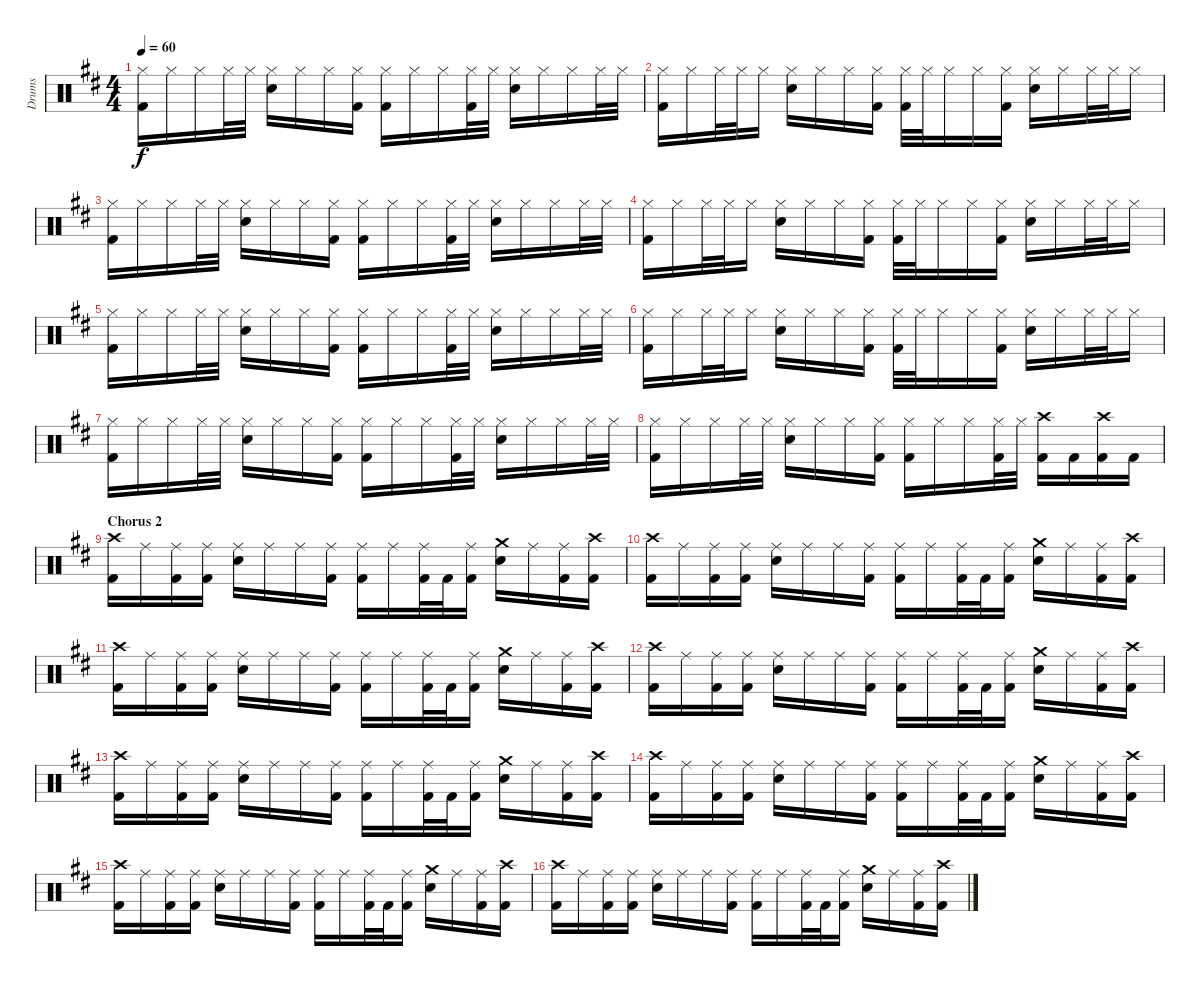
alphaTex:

\track ("Drums" "Drums") {instrument percussion}
\staff {score}
\articulation defaults
\ts (4 4)
\tempo 60
\clef neutral
\ks bminor
("Hi-Hat (closed)" "Kick (hit) 2").16{dy f} "Hi-Hat (closed)".16 "Hi-Hat (closed)".16 "Hi-Hat (closed)".32 "Hi-Hat (closed)".32 ("Hi-Hat (closed)" "Snare (hit) 2").16 "Hi-Hat (closed)".16 "Hi-Hat (closed)".16 ("Hi-Hat (closed)" "Kick (hit) 2").16 ("Hi-Hat (closed)" "Kick (hit) 2").16 "Hi-Hat (closed)".16 "Hi-Hat (closed)".16 ("Hi-Hat (closed)" "Kick (hit) 2").32 "Hi-Hat (closed)".32 ("Hi-Hat (closed)" "Snare (hit) 2").16 "Hi-Hat (closed)".16 "Hi-Hat (closed)".16 "Hi-Hat (closed)".32 "Hi-Hat (closed)".32 |
("Hi-Hat (closed)" "Kick (hit) 2").16 "Hi-Hat (closed)".16 "Hi-Hat (closed)".32 "Hi-Hat (closed)".32 "Hi-Hat (closed)".16 ("Hi-Hat (closed)" "Snare (hit) 2").16 "Hi-Hat (closed)".16 "Hi-Hat (closed)".16 ("Hi-Hat (closed)" "Kick (hit) 2").16 ("Hi-Hat (closed)" "Kick (hit) 2").32 "Hi-Hat (closed)".32 "Hi-Hat (closed)".16 "Hi-Hat (closed)".16 ("Hi-Hat (closed)" "Kick (hit) 2").16 ("Hi-Hat (closed)" "Snare (hit) 2").16 "Hi-Hat (closed)".16 "Hi-Hat (closed)".32 "Hi-Hat (closed)".32 "Hi-Hat (closed)".16 |
("Hi-Hat (closed)" "Kick (hit) 2").16 "Hi-Hat (closed)".16 "Hi-Hat (closed)".16 "Hi-Hat (closed)".32 "Hi-Hat (closed)".32 ("Hi-Hat (closed)" "Snare (hit) 2").16 "Hi-Hat (closed)".16 "Hi-Hat (closed)".16 ("Hi-Hat (closed)" "Kick (hit) 2").16 ("Hi-Hat (closed)" "Kick (hit) 2").16 "Hi-Hat (closed)".16 "Hi-Hat (closed)".16 ("Hi-Hat (closed)" "Kick (hit) 2").32 "Hi-Hat (closed)".32 ("Hi-Hat (closed)" "Snare (hit) 2").16 "Hi-Hat (closed)".16 "Hi-Hat (closed)".16 "Hi-Hat (closed)".32 "Hi-Hat (closed)".32 |
("Hi-Hat (closed)" "Kick (hit) 2").16 "Hi-Hat (closed)".16 "Hi-Hat (closed)".32 "Hi-Hat (closed)".32 "Hi-Hat (closed)".16 ("Hi-Hat (closed)" "Snare (hit) 2").16 "Hi-Hat (closed)".16 "Hi-Hat (closed)".16 ("Hi-Hat (closed)" "Kick (hit) 2").16 ("Hi-Hat (closed)" "Kick (hit) 2").32 "Hi-Hat (closed)".32 "Hi-Hat (closed)".16 "Hi-Hat (closed)".16 ("Hi-Hat (closed)" "Kick (hit) 2").16 ("Hi-Hat (closed)" "Snare (hit) 2").16 "Hi-Hat (closed)".16 "Hi-Hat (closed)".32 "Hi-Hat (closed)".32 "Hi-Hat (closed)".16 |
("Hi-Hat (closed)" "Kick (hit) 2").16 "Hi-Hat (closed)".16 "Hi-Hat (closed)".16 "Hi-Hat (closed)".32 "Hi-Hat (closed)".32 ("Hi-Hat (closed)" "Snare (hit) 2").16 "Hi-Hat (closed)".16 "Hi-Hat (closed)".16 ("Hi-Hat (closed)" "Kick (hit) 2").16 ("Hi-Hat (closed)" "Kick (hit) 2").16 "Hi-Hat (closed)".16 "Hi-Hat (closed)".16 ("Hi-Hat (closed)" "Kick (hit) 2").32 "Hi-Hat (closed)".32 ("Hi-Hat (closed)" "Snare (hit) 2").16 "Hi-Hat (closed)".16 "Hi-Hat (closed)".16 "Hi-Hat (closed)".32 "Hi-Hat (closed)".32 |
("Hi-Hat (closed)" "Kick (hit) 2").16 "Hi-Hat (closed)".16 "Hi-Hat (closed)".32 "Hi-Hat (closed)".32 "Hi-Hat (closed)".16 ("Hi-Hat (closed)" "Snare (hit) 2").16 "Hi-Hat (closed)".16 "Hi-Hat (closed)".16 ("Hi-Hat (closed)" "Kick (hit) 2").16 ("Hi-Hat (closed)" "Kick (hit) 2").32 "Hi-Hat (closed)".32 "Hi-Hat (closed)".16 "Hi-Hat (closed)".16 ("Hi-Hat (closed)" "Kick (hit) 2").16 ("Hi-Hat (closed)" "Snare (hit) 2").16 "Hi-Hat (closed)".16 "Hi-Hat (closed)".32 "Hi-Hat (closed)".32 "Hi-Hat (closed)".16 |
("Hi-Hat (closed)" "Kick (hit) 2").16 "Hi-Hat (closed)".16 "Hi-Hat (closed)".16 "Hi-Hat (closed)".32 "Hi-Hat (closed)".32 ("Hi-Hat (closed)" "Snare (hit) 2").16 "Hi-Hat (closed)".16 "Hi-Hat (closed)".16 ("Hi-Hat (closed)" "Kick (hit) 2").16 ("Hi-Hat (closed)" "Kick (hit) 2").16 "Hi-Hat (closed)".16 "Hi-Hat (closed)".16 ("Hi-Hat (closed)" "Kick (hit) 2").32 "Hi-Hat (closed)".32 ("Hi-Hat (closed)" "Snare (hit) 2").16 "Hi-Hat (closed)".16 "Hi-Hat (closed)".16 "Hi-Hat (closed)".32 "Hi-Hat (closed)".32 |
("Hi-Hat (closed)" "Kick (hit) 2").16 "Hi-Hat (closed)".16 "Hi-Hat (closed)".16 "Hi-Hat (closed)".32 "Hi-Hat (closed)".32 ("Hi-Hat (closed)" "Snare (hit) 2").16 "Hi-Hat (closed)".16 "Hi-Hat (closed)".16 ("Hi-Hat (closed)" "Kick (hit) 2").16 ("Hi-Hat (closed)" "Kick (hit) 2").16 "Hi-Hat (closed)".16 "Hi-Hat (closed)".16 ("Hi-Hat (closed)" "Kick (hit) 2").32 "Hi-Hat (closed)".32 ("Crash high (hit)" "Kick (hit) 2").16 "Kick (hit) 2".16 ("Crash high (hit)" "Kick (hit) 2").16 "Kick (hit) 2".16 |
\section ("" "Chorus 2")
("Crash high (hit)" "Kick (hit) 2").16 "Ride (middle)".16 ("Ride (middle)" "Kick (hit) 2").16 ("Ride (middle)" "Kick (hit) 2").16 ("Ride (middle)" "Snare (hit) 2").16 "Ride (middle)".16 "Ride (middle)".16 ("Ride (middle)" "Kick (hit) 2").16 ("Ride (middle)" "Kick (hit) 2").16 "Ride (middle)".16 ("Ride (middle)" "Kick (hit) 2").32 "Kick (hit) 2".32 ("Ride (middle)" "Kick (hit) 2").16 ("Crash medium (hit)" "Snare (hit) 2").16 "Ride (middle)".16 ("Ride (middle)" "Kick (hit) 2").16 ("Crash high (hit)" "Kick (hit) 2").16 |
("Crash high (hit)" "Kick (hit) 2").16 "Ride (middle)".16 ("Ride (middle)" "Kick (hit) 2").16 ("Ride (middle)" "Kick (hit) 2").16 ("Ride (middle)" "Snare (hit) 2").16 "Ride (middle)".16 "Ride (middle)".16 ("Ride (middle)" "Kick (hit) 2").16 ("Ride (middle)" "Kick (hit) 2").16 "Ride (middle)".16 ("Ride (middle)" "Kick (hit) 2").32 "Kick (hit) 2".32 ("Ride (middle)" "Kick (hit) 2").16 ("Crash medium (hit)" "Snare (hit) 2").16 "Ride (middle)".16 ("Ride (middle)" "Kick (hit) 2").16 ("Crash high (hit)" "Kick (hit) 2").16 |
("Crash high (hit)" "Kick (hit) 2").16 "Ride (middle)".16 ("Ride (middle)" "Kick (hit) 2").16 ("Ride (middle)" "Kick (hit) 2").16 ("Ride (middle)" "Snare (hit) 2").16 "Ride (middle)".16 "Ride (middle)".16 ("Ride (middle)" "Kick (hit) 2").16 ("Ride (middle)" "Kick (hit) 2").16 "Ride (middle)".16 ("Ride (middle)" "Kick (hit) 2").32 "Kick (hit) 2".32 ("Ride (middle)" "Kick (hit) 2").16 ("Crash medium (hit)" "Snare (hit) 2").16 "Ride (middle)".16 ("Ride (middle)" "Kick (hit) 2").16 ("Crash high (hit)" "Kick (hit) 2").16 |
("Crash high (hit)" "Kick (hit) 2").16 "Ride (middle)".16 ("Ride (middle)" "Kick (hit) 2").16 ("Ride (middle)" "Kick (hit) 2").16 ("Ride (middle)" "Snare (hit) 2").16 "Ride (middle)".16 "Ride (middle)".16 ("Ride (middle)" "Kick (hit) 2").16 ("Ride (middle)" "Kick (hit) 2").16 "Ride (middle)".16 ("Ride (middle)" "Kick (hit) 2").32 "Kick (hit) 2".32 ("Ride (middle)" "Kick (hit) 2").16 ("Crash medium (hit)" "Snare (hit) 2").16 "Ride (middle)".16 ("Ride (middle)" "Kick (hit) 2").16 ("Crash high (hit)" "Kick (hit) 2").16 |
("Crash high (hit)" "Kick (hit) 2").16 "Ride (middle)".16 ("Ride (middle)" "Kick (hit) 2").16 ("Ride (middle)" "Kick (hit) 2").16 ("Ride (middle)" "Snare (hit) 2").16 "Ride (middle)".16 "Ride (middle)".16 ("Ride (middle)" "Kick (hit) 2").16 ("Ride (middle)" "Kick (hit) 2").16 "Ride (middle)".16 ("Ride (middle)" "Kick (hit) 2").32 "Kick (hit) 2".32 ("Ride (middle)" "Kick (hit) 2").16 ("Crash medium (hit)" "Snare (hit) 2").16 "Ride (middle)".16 ("Ride (middle)" "Kick (hit) 2").16 ("Crash high (hit)" "Kick (hit) 2").16 |
("Crash high (hit)" "Kick (hit) 2").16 "Ride (middle)".16 ("Ride (middle)" "Kick (hit) 2").16 ("Ride (middle)" "Kick (hit) 2").16 ("Ride (middle)" "Snare (hit) 2").16 "Ride (middle)".16 "Ride (middle)".16 ("Ride (middle)" "Kick (hit) 2").16 ("Ride (middle)" "Kick (hit) 2").16 "Ride (middle)".16 ("Ride (middle)" "Kick (hit) 2").32 "Kick (hit) 2".32 ("Ride (middle)" "Kick (hit) 2").16 ("Crash medium (hit)" "Snare (hit) 2").16 "Ride (middle)".16 ("Ride (middle)" "Kick (hit) 2").16 ("Crash high (hit)" "Kick (hit) 2").16 |
("Crash high (hit)" "Kick (hit) 2").16 "Ride (middle)".16 ("Ride (middle)" "Kick (hit) 2").16 ("Ride (middle)" "Kick (hit) 2").16 ("Ride (middle)" "Snare (hit) 2").16 "Ride (middle)".16 "Ride (middle)".16 ("Ride (middle)" "Kick (hit) 2").16 ("Ride (middle)" "Kick (hit) 2").16 "Ride (middle)".16 ("Ride (middle)" "Kick (hit) 2").32 "Kick (hit) 2".32 ("Ride (middle)" "Kick (hit) 2").16 ("Crash medium (hit)" "Snare (hit) 2").16 "Ride (middle)".16 ("Ride (middle)" "Kick (hit) 2").16 ("Crash high (hit)" "Kick (hit) 2").16 |
("Crash high (hit)" "Kick (hit) 2").16 "Ride (middle)".16 ("Ride (middle)" "Kick (hit) 2").16 ("Ride (middle)" "Kick (hit) 2").16 ("Ride (middle)" "Snare (hit) 2").16 "Ride (middle)".16 "Ride (middle)".16 ("Ride (middle)" "Kick (hit) 2").16 ("Ride (middle)" "Kick (hit) 2").16 "Ride (middle)".16 ("Ride (middle)" "Kick (hit) 2").32 "Kick (hit) 2".32 ("Ride (middle)" "Kick (hit) 2").16 ("Crash medium (hit)" "Snare (hit) 2").16 "Ride (middle)".16 ("Ride (middle)" "Kick (hit) 2").16 ("Crash high (hit)" "Kick (hit) 2").16
